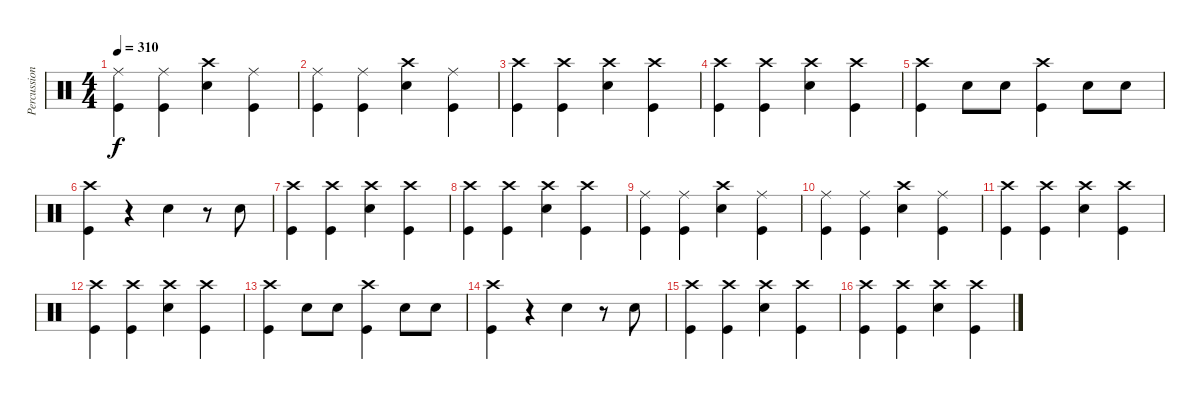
\track ("Percussion" "Percussion") {instrument percussion}
\staff {score}
\articulation defaults
\ts (4 4)
\tempo 310
\clef neutral
\ks c
("Ride (middle)" "Kick (hit)").4{dy f} ("Ride (middle)" "Kick (hit)").4 ("Crash high (hit)" "Electric Snare (hit)").4 ("Ride (middle)" "Kick (hit)").4 |
("Ride (middle)" "Kick (hit)").4 ("Ride (middle)" "Kick (hit)").4 ("Crash high (hit)" "Electric Snare (hit)").4 ("Ride (middle)" "Kick (hit)").4 |
("Crash high (hit)" "Kick (hit)").4 ("Crash high (hit)" "Kick (hit)").4 ("Crash high (hit)" "Electric Snare (hit)").4 ("Crash high (hit)" "Kick (hit)").4 |
("Crash high (hit)" "Kick (hit)").4 ("Crash high (hit)" "Kick (hit)").4 ("Crash high (hit)" "Electric Snare (hit)").4 ("Crash high (hit)" "Kick (hit)").4 |
("Crash high (hit)" "Kick (hit)").4 "Electric Snare (hit)".8 "Electric Snare (hit)".8 ("Crash high (hit)" "Kick (hit)").4 "Electric Snare (hit)".8 "Electric Snare (hit)".8 |
("Crash high (hit)" "Kick (hit)").4 r.4 "Electric Snare (hit)".4 r.8 "Electric Snare (hit)".8 |
("Crash high (hit)" "Kick (hit)").4 ("Crash high (hit)" "Kick (hit)").4 ("Crash high (hit)" "Electric Snare (hit)").4 ("Crash high (hit)" "Kick (hit)").4 |
("Crash high (hit)" "Kick (hit)").4 ("Crash high (hit)" "Kick (hit)").4 ("Crash high (hit)" "Electric Snare (hit)").4 ("Crash high (hit)" "Kick (hit)").4 |
("Ride (middle)" "Kick (hit)").4 ("Ride (middle)" "Kick (hit)").4 ("Crash high (hit)" "Electric Snare (hit)").4 ("Ride (middle)" "Kick (hit)").4 |
("Ride (middle)" "Kick (hit)").4 ("Ride (middle)" "Kick (hit)").4 ("Crash high (hit)" "Electric Snare (hit)").4 ("Ride (middle)" "Kick (hit)").4 |
("Crash high (hit)" "Kick (hit)").4 ("Crash high (hit)" "Kick (hit)").4 ("Crash high (hit)" "Electric Snare (hit)").4 ("Crash high (hit)" "Kick (hit)").4 |
("Crash high (hit)" "Kick (hit)").4 ("Crash high (hit)" "Kick (hit)").4 ("Crash high (hit)" "Electric Snare (hit)").4 ("Crash high (hit)" "Kick (hit)").4 |
("Crash high (hit)" "Kick (hit)").4 "Electric Snare (hit)".8 "Electric Snare (hit)".8 ("Crash high (hit)" "Kick (hit)").4 "Electric Snare (hit)".8 "Electric Snare (hit)".8 |
("Crash high (hit)" "Kick (hit)").4 r.4 "Electric Snare (hit)".4 r.8 "Electric Snare (hit)".8 |
("Crash high (hit)" "Kick (hit)").4 ("Crash high (hit)" "Kick (hit)").4 ("Crash high (hit)" "Electric Snare (hit)").4 ("Crash high (hit)" "Kick (hit)").4 |
("Crash high (hit)" "Kick (hit)").4 ("Crash high (hit)" "Kick (hit)").4 ("Crash high (hit)" "Electric Snare (hit)").4 ("Crash high (hit)" "Kick (hit)").4
